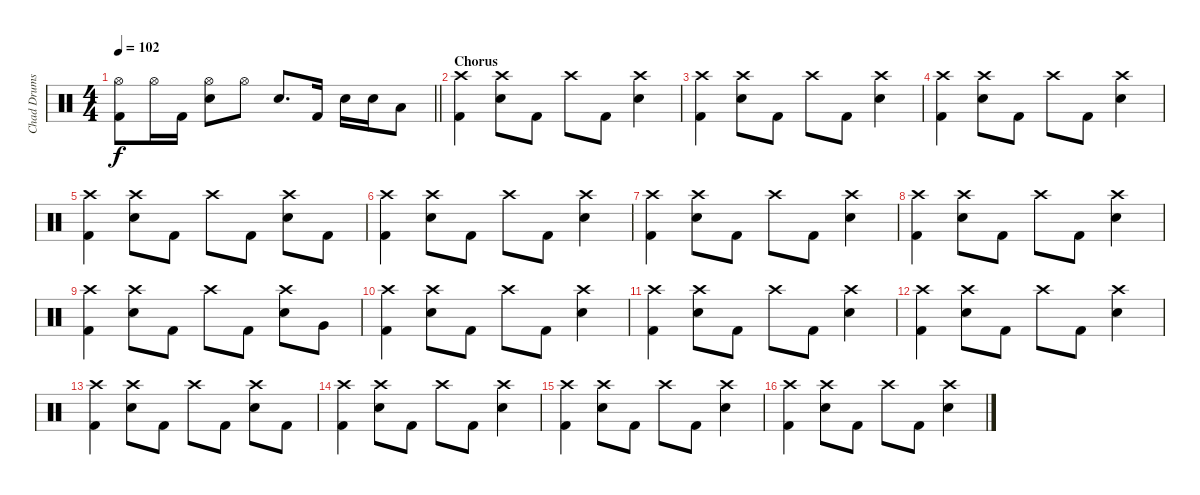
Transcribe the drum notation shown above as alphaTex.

\track ("Chad Drums)" "Chad Drums") {instrument percussion}
\staff {score}
\articulation defaults
\ts (4 4)
\tempo 102
\clef neutral
\barLineRight lightlight
\ks c
("Hi-Hat (open)" "Kick (hit) 2").8{dy f} "Hi-Hat (open)".16 "Kick (hit) 2".16 ("Hi-Hat (open)" "Snare (hit) 2").8 "Hi-Hat (open)".8 "Snare (hit) 2".8{d} "Kick (hit) 2".16 "Snare (hit) 2".16 "Snare (hit) 2".16 "Low Tom (hit)".8 |
\section ("" "Chorus")
("Crash high (hit)" "Kick (hit) 2").4 ("Crash high (hit)" "Snare (hit) 2").8 "Kick (hit) 2".8 "Crash high (hit)".8 "Kick (hit) 2".8 ("Crash high (hit)" "Snare (hit) 2").4 |
("Crash high (hit)" "Kick (hit) 2").4 ("Crash high (hit)" "Snare (hit) 2").8 "Kick (hit) 2".8 "Crash high (hit)".8 "Kick (hit) 2".8 ("Crash high (hit)" "Snare (hit) 2").4 |
("Crash high (hit)" "Kick (hit) 2").4 ("Crash high (hit)" "Snare (hit) 2").8 "Kick (hit) 2".8 "Crash high (hit)".8 "Kick (hit) 2".8 ("Crash high (hit)" "Snare (hit) 2").4 |
("Crash high (hit)" "Kick (hit) 2").4 ("Crash high (hit)" "Snare (hit) 2").8 "Kick (hit) 2".8 "Crash high (hit)".8 "Kick (hit) 2".8 ("Crash high (hit)" "Snare (hit) 2").8 "Kick (hit) 2".8 |
("Crash high (hit)" "Kick (hit) 2").4 ("Crash high (hit)" "Snare (hit) 2").8 "Kick (hit) 2".8 "Crash high (hit)".8 "Kick (hit) 2".8 ("Crash high (hit)" "Snare (hit) 2").4 |
("Crash high (hit)" "Kick (hit) 2").4 ("Crash high (hit)" "Snare (hit) 2").8 "Kick (hit) 2".8 "Crash high (hit)".8 "Kick (hit) 2".8 ("Crash high (hit)" "Snare (hit) 2").4 |
("Crash high (hit)" "Kick (hit) 2").4 ("Crash high (hit)" "Snare (hit) 2").8 "Kick (hit) 2".8 "Crash high (hit)".8 "Kick (hit) 2".8 ("Crash high (hit)" "Snare (hit) 2").4 |
("Crash high (hit)" "Kick (hit) 2").4 ("Crash high (hit)" "Snare (hit) 2").8 "Kick (hit) 2".8 "Crash high (hit)".8 "Kick (hit) 2".8 ("Crash high (hit)" "Snare (hit) 2").8 "Very Low Tom (hit)".8 |
("Crash high (hit)" "Kick (hit) 2").4 ("Crash high (hit)" "Snare (hit) 2").8 "Kick (hit) 2".8 "Crash high (hit)".8 "Kick (hit) 2".8 ("Crash high (hit)" "Snare (hit) 2").4 |
("Crash high (hit)" "Kick (hit) 2").4 ("Crash high (hit)" "Snare (hit) 2").8 "Kick (hit) 2".8 "Crash high (hit)".8 "Kick (hit) 2".8 ("Crash high (hit)" "Snare (hit) 2").4 |
("Crash high (hit)" "Kick (hit) 2").4 ("Crash high (hit)" "Snare (hit) 2").8 "Kick (hit) 2".8 "Crash high (hit)".8 "Kick (hit) 2".8 ("Crash high (hit)" "Snare (hit) 2").4 |
("Crash high (hit)" "Kick (hit) 2").4 ("Crash high (hit)" "Snare (hit) 2").8 "Kick (hit) 2".8 "Crash high (hit)".8 "Kick (hit) 2".8 ("Crash high (hit)" "Snare (hit) 2").8 "Kick (hit) 2".8 |
("Crash high (hit)" "Kick (hit) 2").4 ("Crash high (hit)" "Snare (hit) 2").8 "Kick (hit) 2".8 "Crash high (hit)".8 "Kick (hit) 2".8 ("Crash high (hit)" "Snare (hit) 2").4 |
("Crash high (hit)" "Kick (hit) 2").4 ("Crash high (hit)" "Snare (hit) 2").8 "Kick (hit) 2".8 "Crash high (hit)".8 "Kick (hit) 2".8 ("Crash high (hit)" "Snare (hit) 2").4 |
("Crash high (hit)" "Kick (hit) 2").4 ("Crash high (hit)" "Snare (hit) 2").8 "Kick (hit) 2".8 "Crash high (hit)".8 "Kick (hit) 2".8 ("Crash high (hit)" "Snare (hit) 2").4
